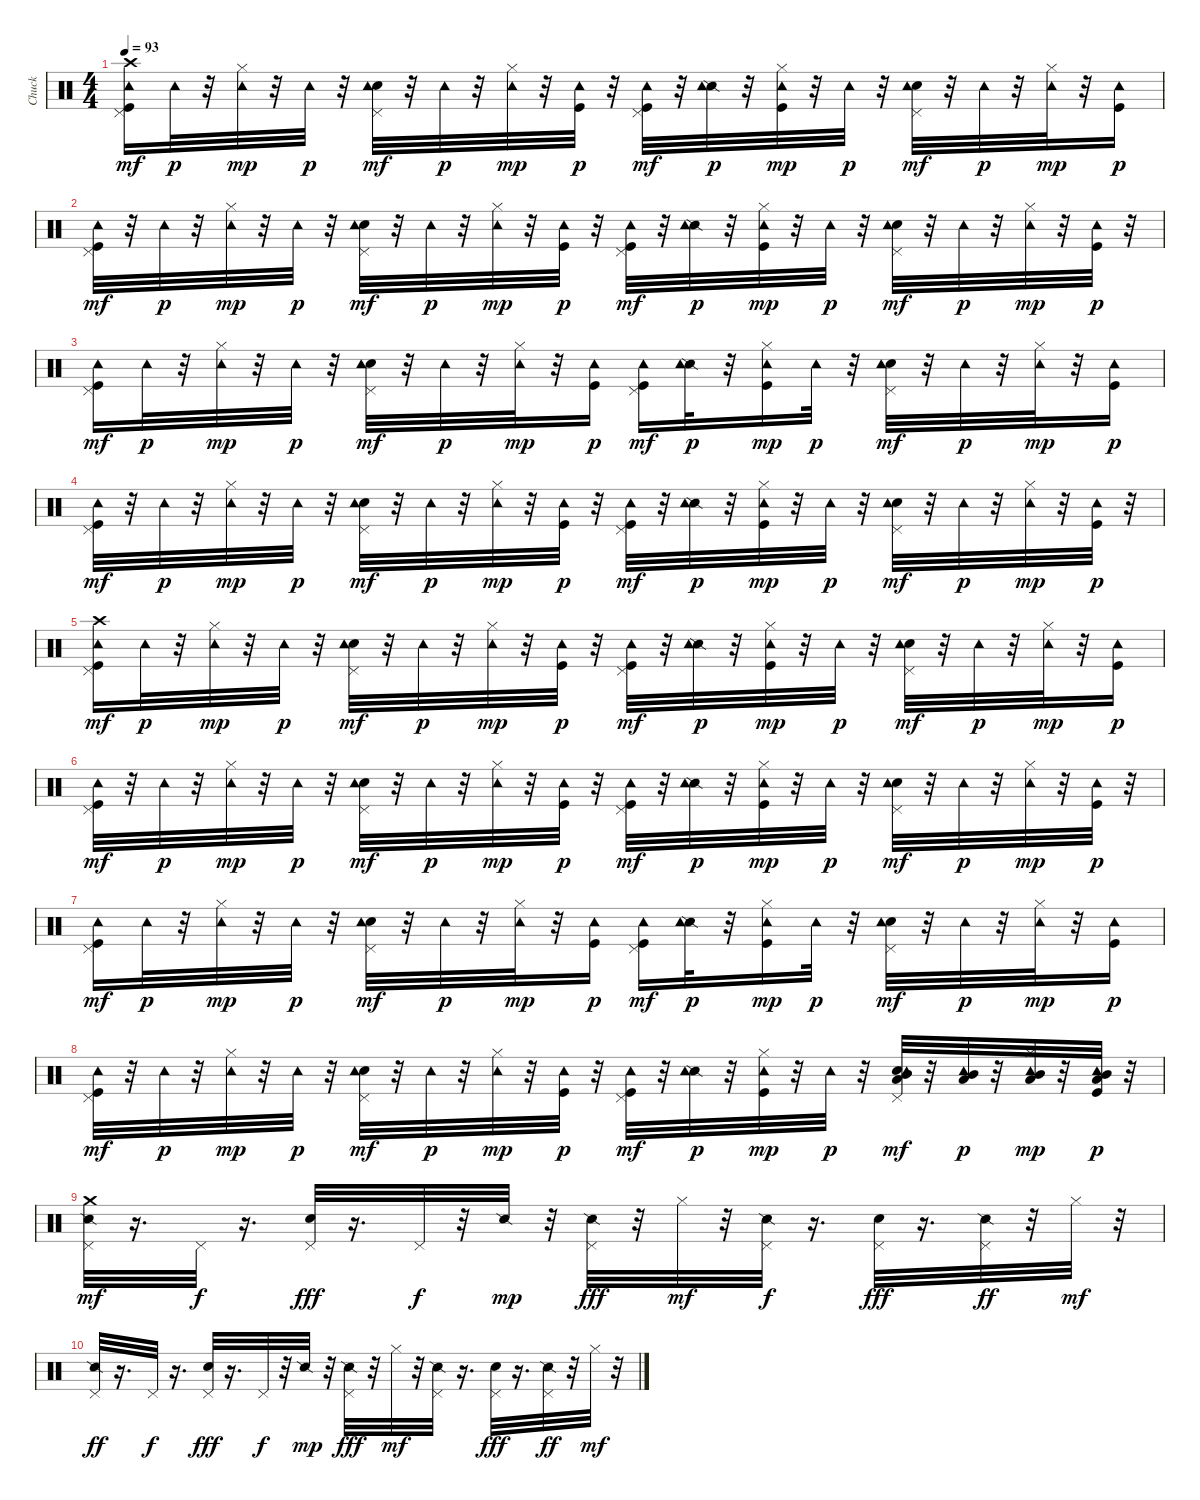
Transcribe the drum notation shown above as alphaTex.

\track ("Chuck" "Chuck") {instrument percussion}
\staff {score}
\articulation defaults
\ts (4 4)
\tempo 93
\clef neutral
\ks c
("Kick (hit)" "Pedal Hi-Hat (hit)" "Crash high (hit)" "Tambourine (hit)").16{dy mf} "Tambourine (hit)".32{dy p} r.32 ("Hi-Hat (closed)" "Tambourine (hit)").32{dy mp} r.32 "Tambourine (hit)".32{dy p} r.32 ("Electric Snare (hit)" "Pedal Hi-Hat (hit)" "Tambourine (hit)").32{dy mf} r.32 "Tambourine (hit)".32{dy p} r.32 ("Hi-Hat (closed)" "Tambourine (hit)").32{dy mp} r.32 ("Kick (hit)" "Tambourine (hit)").32{dy p} r.32 ("Kick (hit)" "Pedal Hi-Hat (hit)" "Tambourine (hit)").32{dy mf} r.32 ("Snare (side stick) 2" "Tambourine (hit)").32{dy p} r.32 ("Kick (hit)" "Hi-Hat (closed)" "Tambourine (hit)").32{dy mp} r.32 "Tambourine (hit)".32{dy p} r.32 ("Electric Snare (hit)" "Pedal Hi-Hat (hit)" "Tambourine (hit)").32{dy mf} r.32 "Tambourine (hit)".32{dy p} r.32 ("Hi-Hat (closed)" "Tambourine (hit)").32{dy mp} r.32 ("Kick (hit)" "Tambourine (hit)").16{dy p} |
("Kick (hit)" "Pedal Hi-Hat (hit)" "Tambourine (hit)").32{dy mf} r.32 "Tambourine (hit)".32{dy p} r.32 ("Hi-Hat (closed)" "Tambourine (hit)").32{dy mp} r.32 "Tambourine (hit)".32{dy p} r.32 ("Electric Snare (hit)" "Pedal Hi-Hat (hit)" "Tambourine (hit)").32{dy mf} r.32 "Tambourine (hit)".32{dy p} r.32 ("Hi-Hat (closed)" "Tambourine (hit)").32{dy mp} r.32 ("Kick (hit)" "Tambourine (hit)").32{dy p} r.32 ("Kick (hit)" "Pedal Hi-Hat (hit)" "Tambourine (hit)").32{dy mf} r.32 ("Snare (side stick) 2" "Tambourine (hit)").32{dy p} r.32 ("Kick (hit)" "Hi-Hat (closed)" "Tambourine (hit)").32{dy mp} r.32 "Tambourine (hit)".32{dy p} r.32 ("Electric Snare (hit)" "Pedal Hi-Hat (hit)" "Tambourine (hit)").32{dy mf} r.32 "Tambourine (hit)".32{dy p} r.32 ("Hi-Hat (closed)" "Tambourine (hit)").32{dy mp} r.32 ("Kick (hit)" "Tambourine (hit)").32{dy p} r.32 |
("Kick (hit)" "Pedal Hi-Hat (hit)" "Tambourine (hit)").16{dy mf} "Tambourine (hit)".32{dy p} r.32 ("Hi-Hat (closed)" "Tambourine (hit)").32{dy mp} r.32 "Tambourine (hit)".32{dy p} r.32 ("Electric Snare (hit)" "Pedal Hi-Hat (hit)" "Tambourine (hit)").32{dy mf} r.32 "Tambourine (hit)".32{dy p} r.32 ("Hi-Hat (closed)" "Tambourine (hit)").32{dy mp} r.32 ("Kick (hit)" "Tambourine (hit)").16{dy p} ("Kick (hit)" "Pedal Hi-Hat (hit)" "Tambourine (hit)").16{dy mf} ("Snare (side stick) 2" "Tambourine (hit)").32{dy p} r.32 ("Kick (hit)" "Hi-Hat (closed)" "Tambourine (hit)").16{dy mp} "Tambourine (hit)".32{dy p} r.32 ("Electric Snare (hit)" "Pedal Hi-Hat (hit)" "Tambourine (hit)").32{dy mf} r.32 "Tambourine (hit)".32{dy p} r.32 ("Hi-Hat (closed)" "Tambourine (hit)").32{dy mp} r.32 ("Kick (hit)" "Tambourine (hit)").16{dy p} |
("Kick (hit)" "Pedal Hi-Hat (hit)" "Tambourine (hit)").32{dy mf} r.32 "Tambourine (hit)".32{dy p} r.32 ("Hi-Hat (closed)" "Tambourine (hit)").32{dy mp} r.32 "Tambourine (hit)".32{dy p} r.32 ("Electric Snare (hit)" "Pedal Hi-Hat (hit)" "Tambourine (hit)").32{dy mf} r.32 "Tambourine (hit)".32{dy p} r.32 ("Hi-Hat (closed)" "Tambourine (hit)").32{dy mp} r.32 ("Kick (hit)" "Tambourine (hit)").32{dy p} r.32 ("Kick (hit)" "Pedal Hi-Hat (hit)" "Tambourine (hit)").32{dy mf} r.32 ("Snare (side stick) 2" "Tambourine (hit)").32{dy p} r.32 ("Kick (hit)" "Hi-Hat (closed)" "Tambourine (hit)").32{dy mp} r.32 "Tambourine (hit)".32{dy p} r.32 ("Electric Snare (hit)" "Pedal Hi-Hat (hit)" "Tambourine (hit)").32{dy mf} r.32 "Tambourine (hit)".32{dy p} r.32 ("Hi-Hat (closed)" "Tambourine (hit)").32{dy mp} r.32 ("Kick (hit)" "Tambourine (hit)").32{dy p} r.32 |
("Kick (hit)" "Pedal Hi-Hat (hit)" "Crash high (hit)" "Tambourine (hit)").16{dy mf} "Tambourine (hit)".32{dy p} r.32 ("Hi-Hat (closed)" "Tambourine (hit)").32{dy mp} r.32 "Tambourine (hit)".32{dy p} r.32 ("Electric Snare (hit)" "Pedal Hi-Hat (hit)" "Tambourine (hit)").32{dy mf} r.32 "Tambourine (hit)".32{dy p} r.32 ("Hi-Hat (closed)" "Tambourine (hit)").32{dy mp} r.32 ("Kick (hit)" "Tambourine (hit)").32{dy p} r.32 ("Kick (hit)" "Pedal Hi-Hat (hit)" "Tambourine (hit)").32{dy mf} r.32 ("Snare (side stick) 2" "Tambourine (hit)").32{dy p} r.32 ("Kick (hit)" "Hi-Hat (closed)" "Tambourine (hit)").32{dy mp} r.32 "Tambourine (hit)".32{dy p} r.32 ("Electric Snare (hit)" "Pedal Hi-Hat (hit)" "Tambourine (hit)").32{dy mf} r.32 "Tambourine (hit)".32{dy p} r.32 ("Hi-Hat (closed)" "Tambourine (hit)").32{dy mp} r.32 ("Kick (hit)" "Tambourine (hit)").16{dy p} |
("Kick (hit)" "Pedal Hi-Hat (hit)" "Tambourine (hit)").32{dy mf} r.32 "Tambourine (hit)".32{dy p} r.32 ("Hi-Hat (closed)" "Tambourine (hit)").32{dy mp} r.32 "Tambourine (hit)".32{dy p} r.32 ("Electric Snare (hit)" "Pedal Hi-Hat (hit)" "Tambourine (hit)").32{dy mf} r.32 "Tambourine (hit)".32{dy p} r.32 ("Hi-Hat (closed)" "Tambourine (hit)").32{dy mp} r.32 ("Kick (hit)" "Tambourine (hit)").32{dy p} r.32 ("Kick (hit)" "Pedal Hi-Hat (hit)" "Tambourine (hit)").32{dy mf} r.32 ("Snare (side stick) 2" "Tambourine (hit)").32{dy p} r.32 ("Kick (hit)" "Hi-Hat (closed)" "Tambourine (hit)").32{dy mp} r.32 "Tambourine (hit)".32{dy p} r.32 ("Electric Snare (hit)" "Pedal Hi-Hat (hit)" "Tambourine (hit)").32{dy mf} r.32 "Tambourine (hit)".32{dy p} r.32 ("Hi-Hat (closed)" "Tambourine (hit)").32{dy mp} r.32 ("Kick (hit)" "Tambourine (hit)").32{dy p} r.32 |
("Kick (hit)" "Pedal Hi-Hat (hit)" "Tambourine (hit)").16{dy mf} "Tambourine (hit)".32{dy p} r.32 ("Hi-Hat (closed)" "Tambourine (hit)").32{dy mp} r.32 "Tambourine (hit)".32{dy p} r.32 ("Electric Snare (hit)" "Pedal Hi-Hat (hit)" "Tambourine (hit)").32{dy mf} r.32 "Tambourine (hit)".32{dy p} r.32 ("Hi-Hat (closed)" "Tambourine (hit)").32{dy mp} r.32 ("Kick (hit)" "Tambourine (hit)").16{dy p} ("Kick (hit)" "Pedal Hi-Hat (hit)" "Tambourine (hit)").16{dy mf} ("Snare (side stick) 2" "Tambourine (hit)").32{dy p} r.32 ("Kick (hit)" "Hi-Hat (closed)" "Tambourine (hit)").16{dy mp} "Tambourine (hit)".32{dy p} r.32 ("Electric Snare (hit)" "Pedal Hi-Hat (hit)" "Tambourine (hit)").32{dy mf} r.32 "Tambourine (hit)".32{dy p} r.32 ("Hi-Hat (closed)" "Tambourine (hit)").32{dy mp} r.32 ("Kick (hit)" "Tambourine (hit)").16{dy p} |
("Kick (hit)" "Pedal Hi-Hat (hit)" "Tambourine (hit)").32{dy mf} r.32 "Tambourine (hit)".32{dy p} r.32 ("Hi-Hat (closed)" "Tambourine (hit)").32{dy mp} r.32 "Tambourine (hit)".32{dy p} r.32 ("Electric Snare (hit)" "Pedal Hi-Hat (hit)" "Tambourine (hit)").32{dy mf} r.32 "Tambourine (hit)".32{dy p} r.32 ("Hi-Hat (closed)" "Tambourine (hit)").32{dy mp} r.32 ("Kick (hit)" "Tambourine (hit)").32{dy p} r.32 ("Kick (hit)" "Pedal Hi-Hat (hit)" "Tambourine (hit)").32{dy mf} r.32 ("Snare (side stick) 2" "Tambourine (hit)").32{dy p} r.32 ("Kick (hit)" "Hi-Hat (closed)" "Tambourine (hit)").32{dy mp} r.32 "Tambourine (hit)".32{dy p} r.32 ("Electric Snare (hit)" "Pedal Hi-Hat (hit)" "Low Tom (hit)" "Mid Tom (hit)" "Tambourine (hit)").32{dy mf} r.32 ("Low Tom (hit)" "Mid Tom (hit)" "Tambourine (hit)").32{dy p} r.32 ("Hi-Hat (closed)" "Low Tom (hit)" "Mid Tom (hit)" "Tambourine (hit)").32{dy mp} r.32 ("Kick (hit)" "Low Tom (hit)" "Mid Tom (hit)" "Tambourine (hit)").32{dy p} r.32 |
("Snare (side stick) 2" "Pedal Hi-Hat (hit)" "Crash medium (hit)").32{dy mf} r.16{d} "Pedal Hi-Hat (hit)".32{dy f volume 15} r.16{d} ("Snare (hit) 2" "Pedal Hi-Hat (hit)").32{dy fff volume 14} r.16{d} "Pedal Hi-Hat (hit)".32{dy f volume 13} r.32 "Snare (side stick) 2".32{dy mp volume 12} r.32 ("Snare (side stick) 2" "Pedal Hi-Hat (hit)").32{dy fff volume 12} r.32 "Hi-Hat (closed)".32{dy mf volume 12} r.32 ("Snare (side stick) 2" "Pedal Hi-Hat (hit)").32{dy f volume 11} r.16{d} ("Snare (hit) 2" "Pedal Hi-Hat (hit)").32{dy fff volume 10} r.16{d} ("Snare (side stick) 2" "Pedal Hi-Hat (hit)").32{dy ff volume 9} r.32 "Hi-Hat (closed)".32{dy mf volume 8} r.32 |
("Snare (side stick) 2" "Pedal Hi-Hat (hit)").32{dy ff volume 8} r.16{d} "Pedal Hi-Hat (hit)".32{dy f volume 7} r.16{d} ("Snare (hit) 2" "Pedal Hi-Hat (hit)").32{dy fff volume 6} r.16{d} "Pedal Hi-Hat (hit)".32{dy f volume 5} r.32 "Snare (side stick) 2".32{dy mp volume 4} r.32 ("Snare (side stick) 2" "Pedal Hi-Hat (hit)").32{dy fff volume 4} r.32 "Hi-Hat (closed)".32{dy mf volume 4} r.32 ("Snare (side stick) 2" "Pedal Hi-Hat (hit)").32{volume 3} r.16{d} ("Snare (hit) 2" "Pedal Hi-Hat (hit)").32{dy fff volume 2} r.16{d} ("Snare (side stick) 2" "Pedal Hi-Hat (hit)").32{dy ff volume 1} r.32 "Hi-Hat (closed)".32{dy mf volume 0} r.32
